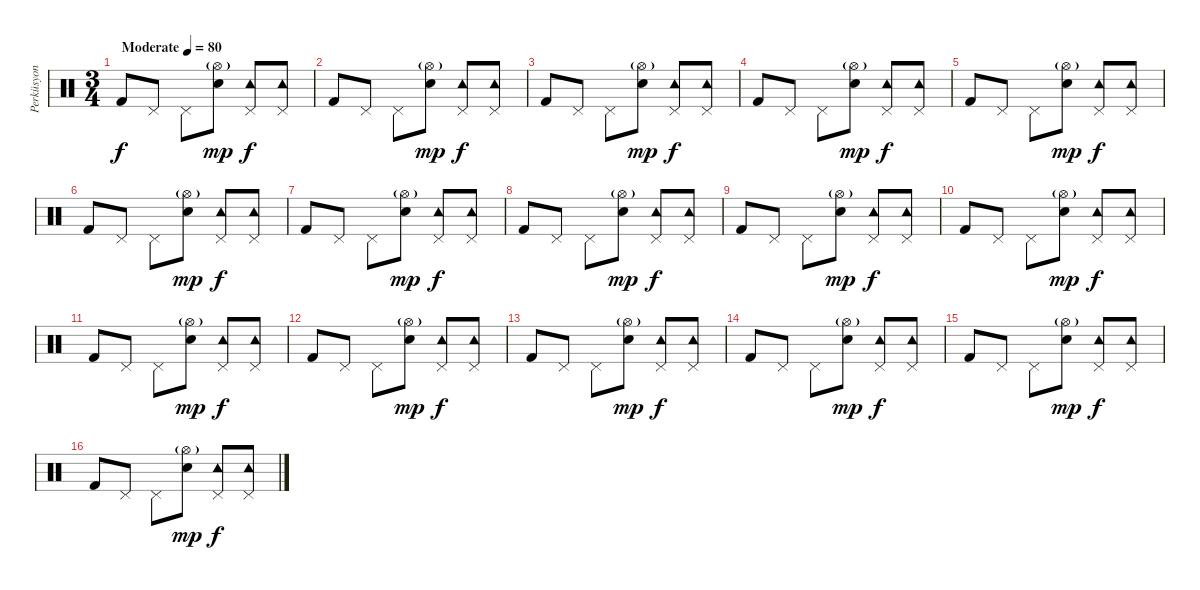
\track ("Perküsyon" "Perküsyon") {instrument percussion}
\staff {score}
\articulation defaults
\ts (3 4)
\tempo (80 "Moderate")
\clef neutral
\ks c "Kick (hit) 2".8{dy f} "Pedal Hi-Hat (hit)".8 "Pedal Hi-Hat (hit)".8
("Hi-Hat (open)"{g} "Snare (hit) 2").8{dy mp} ("Tambourine (hit)" "Pedal Hi-Hat (hit)").8{dy f} ("Tambourine (hit)" "Pedal Hi-Hat (hit)").8 |
"Kick (hit) 2".8 "Pedal Hi-Hat (hit)".8 "Pedal Hi-Hat (hit)".8 ("Hi-Hat (open)"{g} "Snare (hit) 2").8{dy mp} ("Tambourine (hit)" "Pedal Hi-Hat (hit)").8{dy f} ("Tambourine (hit)" "Pedal Hi-Hat (hit)").8 |
"Kick (hit) 2".8 "Pedal Hi-Hat (hit)".8 "Pedal Hi-Hat (hit)".8 ("Hi-Hat (open)"{g} "Snare (hit) 2").8{dy mp} ("Tambourine (hit)" "Pedal Hi-Hat (hit)").8{dy f} ("Tambourine (hit)" "Pedal Hi-Hat (hit)").8 |
"Kick (hit) 2".8 "Pedal Hi-Hat (hit)".8 "Pedal Hi-Hat (hit)".8 ("Hi-Hat (open)"{g} "Snare (hit) 2").8{dy mp} ("Tambourine (hit)" "Pedal Hi-Hat (hit)").8{dy f} ("Tambourine (hit)" "Pedal Hi-Hat (hit)").8 |
"Kick (hit) 2".8 "Pedal Hi-Hat (hit)".8 "Pedal Hi-Hat (hit)".8 ("Hi-Hat (open)"{g} "Snare (hit) 2").8{dy mp} ("Tambourine (hit)" "Pedal Hi-Hat (hit)").8{dy f} ("Tambourine (hit)" "Pedal Hi-Hat (hit)").8 |
"Kick (hit) 2".8 "Pedal Hi-Hat (hit)".8 "Pedal Hi-Hat (hit)".8 ("Hi-Hat (open)"{g} "Snare (hit) 2").8{dy mp} ("Tambourine (hit)" "Pedal Hi-Hat (hit)").8{dy f} ("Tambourine (hit)" "Pedal Hi-Hat (hit)").8 |
"Kick (hit) 2".8 "Pedal Hi-Hat (hit)".8 "Pedal Hi-Hat (hit)".8 ("Hi-Hat (open)"{g} "Snare (hit) 2").8{dy mp} ("Tambourine (hit)" "Pedal Hi-Hat (hit)").8{dy f} ("Tambourine (hit)" "Pedal Hi-Hat (hit)").8 |
"Kick (hit) 2".8 "Pedal Hi-Hat (hit)".8 "Pedal Hi-Hat (hit)".8 ("Hi-Hat (open)"{g} "Snare (hit) 2").8{dy mp} ("Tambourine (hit)" "Pedal Hi-Hat (hit)").8{dy f} ("Tambourine (hit)" "Pedal Hi-Hat (hit)").8 |
"Kick (hit) 2".8 "Pedal Hi-Hat (hit)".8 "Pedal Hi-Hat (hit)".8 ("Hi-Hat (open)"{g} "Snare (hit) 2").8{dy mp} ("Tambourine (hit)" "Pedal Hi-Hat (hit)").8{dy f} ("Tambourine (hit)" "Pedal Hi-Hat (hit)").8 |
"Kick (hit) 2".8 "Pedal Hi-Hat (hit)".8 "Pedal Hi-Hat (hit)".8 ("Hi-Hat (open)"{g} "Snare (hit) 2").8{dy mp} ("Tambourine (hit)" "Pedal Hi-Hat (hit)").8{dy f} ("Tambourine (hit)" "Pedal Hi-Hat (hit)").8 |
"Kick (hit) 2".8 "Pedal Hi-Hat (hit)".8 "Pedal Hi-Hat (hit)".8 ("Hi-Hat (open)"{g} "Snare (hit) 2").8{dy mp} ("Tambourine (hit)" "Pedal Hi-Hat (hit)").8{dy f} ("Tambourine (hit)" "Pedal Hi-Hat (hit)").8 |
"Kick (hit) 2".8 "Pedal Hi-Hat (hit)".8 "Pedal Hi-Hat (hit)".8 ("Hi-Hat (open)"{g} "Snare (hit) 2").8{dy mp} ("Tambourine (hit)" "Pedal Hi-Hat (hit)").8{dy f} ("Tambourine (hit)" "Pedal Hi-Hat (hit)").8 |
"Kick (hit) 2".8 "Pedal Hi-Hat (hit)".8 "Pedal Hi-Hat (hit)".8 ("Hi-Hat (open)"{g} "Snare (hit) 2").8{dy mp} ("Tambourine (hit)" "Pedal Hi-Hat (hit)").8{dy f} ("Tambourine (hit)" "Pedal Hi-Hat (hit)").8 |
"Kick (hit) 2".8 "Pedal Hi-Hat (hit)".8 "Pedal Hi-Hat (hit)".8 ("Hi-Hat (open)"{g} "Snare (hit) 2").8{dy mp} ("Tambourine (hit)" "Pedal Hi-Hat (hit)").8{dy f} ("Tambourine (hit)" "Pedal Hi-Hat (hit)").8 |
"Kick (hit) 2".8 "Pedal Hi-Hat (hit)".8 "Pedal Hi-Hat (hit)".8 ("Hi-Hat (open)"{g} "Snare (hit) 2").8{dy mp} ("Tambourine (hit)" "Pedal Hi-Hat (hit)").8{dy f} ("Tambourine (hit)" "Pedal Hi-Hat (hit)").8 |
"Kick (hit) 2".8 "Pedal Hi-Hat (hit)".8 "Pedal Hi-Hat (hit)".8 ("Hi-Hat (open)"{g} "Snare (hit) 2").8{dy mp} ("Tambourine (hit)" "Pedal Hi-Hat (hit)").8{dy f} ("Tambourine (hit)" "Pedal Hi-Hat (hit)").8
